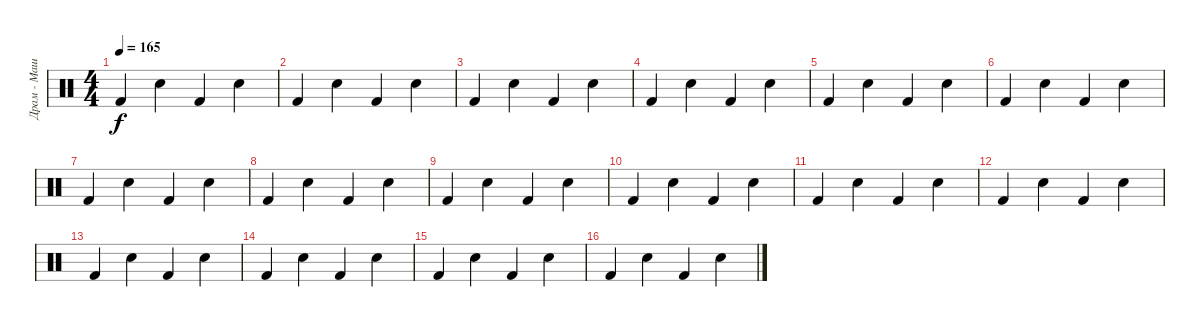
\track ("Драм - Машина" "Драм - Маш") {instrument percussion}
\staff {score}
\articulation defaults
\ts (4 4)
\tempo 165
\clef neutral
\ks c "Kick (hit) 2".4{dy f} "Snare (hit) 2".4 "Kick (hit) 2".4 "Snare (hit) 2".4
|
"Kick (hit) 2".4 "Snare (hit) 2".4 "Kick (hit) 2".4 "Snare (hit) 2".4 |
"Kick (hit) 2".4 "Snare (hit) 2".4 "Kick (hit) 2".4 "Snare (hit) 2".4 |
"Kick (hit) 2".4 "Snare (hit) 2".4 "Kick (hit) 2".4 "Snare (hit) 2".4 |
"Kick (hit) 2".4 "Snare (hit) 2".4 "Kick (hit) 2".4 "Snare (hit) 2".4 |
"Kick (hit) 2".4 "Snare (hit) 2".4 "Kick (hit) 2".4 "Snare (hit) 2".4 |
"Kick (hit) 2".4 "Snare (hit) 2".4 "Kick (hit) 2".4 "Snare (hit) 2".4 |
"Kick (hit) 2".4 "Snare (hit) 2".4 "Kick (hit) 2".4 "Snare (hit) 2".4 |
"Kick (hit) 2".4 "Snare (hit) 2".4 "Kick (hit) 2".4 "Snare (hit) 2".4 |
"Kick (hit) 2".4 "Snare (hit) 2".4 "Kick (hit) 2".4 "Snare (hit) 2".4 |
"Kick (hit) 2".4 "Snare (hit) 2".4 "Kick (hit) 2".4 "Snare (hit) 2".4 |
"Kick (hit) 2".4 "Snare (hit) 2".4 "Kick (hit) 2".4 "Snare (hit) 2".4 |
"Kick (hit) 2".4 "Snare (hit) 2".4 "Kick (hit) 2".4 "Snare (hit) 2".4 |
"Kick (hit) 2".4 "Snare (hit) 2".4 "Kick (hit) 2".4 "Snare (hit) 2".4 |
"Kick (hit) 2".4 "Snare (hit) 2".4 "Kick (hit) 2".4 "Snare (hit) 2".4 |
"Kick (hit) 2".4 "Snare (hit) 2".4 "Kick (hit) 2".4 "Snare (hit) 2".4
